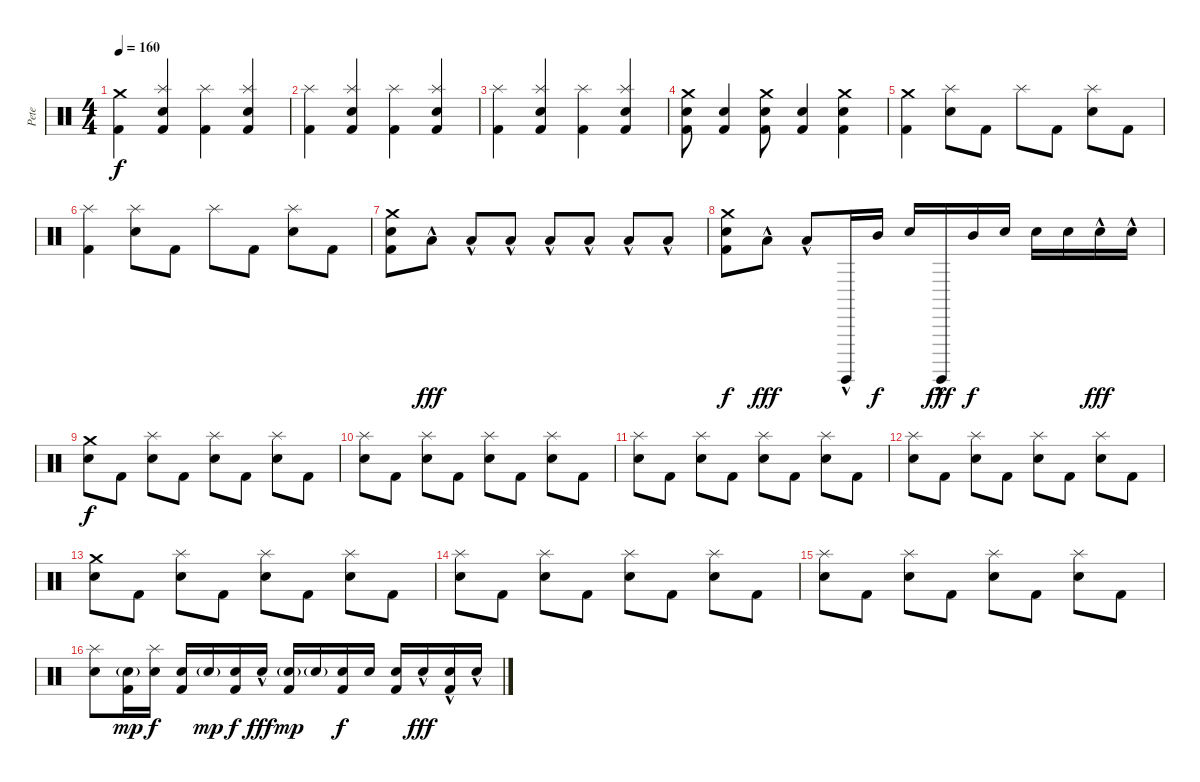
\track ("Pete" "Pete") {instrument percussion}
\staff {score}
\articulation defaults
\ts (4 4)
\tempo 160
\clef neutral
\ks c
("Crash medium (hit)" "Kick (hit) 2").4{dy f} ("Splash (hit)" "Electric Snare (hit)" "Kick (hit) 2").4 ("Splash (hit)" "Kick (hit) 2").4 ("Splash (hit)" "Electric Snare (hit)" "Kick (hit) 2").4 |
("Splash (hit)" "Kick (hit) 2").4 ("Splash (hit)" "Electric Snare (hit)" "Kick (hit) 2").4 ("Splash (hit)" "Kick (hit) 2").4 ("Splash (hit)" "Electric Snare (hit)" "Kick (hit) 2").4 |
("Splash (hit)" "Kick (hit) 2").4 ("Splash (hit)" "Electric Snare (hit)" "Kick (hit) 2").4 ("Splash (hit)" "Kick (hit) 2").4 ("Splash (hit)" "Electric Snare (hit)" "Kick (hit) 2").4 |
("Crash medium (hit)" "Electric Snare (hit)" "Kick (hit) 2").8 ("Electric Snare (hit)" "Kick (hit) 2").4 ("Crash medium (hit)" "Electric Snare (hit)" "Kick (hit) 2").8 ("Electric Snare (hit)" "Kick (hit) 2").4 ("Crash medium (hit)" "Electric Snare (hit)" "Kick (hit) 2").4 |
("Crash medium (hit)" "Kick (hit) 2").4 ("Splash (hit)" "Electric Snare (hit)").8 "Kick (hit) 2".8 "Splash (hit)".8 "Kick (hit) 2".8 ("Splash (hit)" "Electric Snare (hit)").8 "Kick (hit) 2".8 |
("Splash (hit)" "Kick (hit) 2").4 ("Splash (hit)" "Electric Snare (hit)").8 "Kick (hit) 2".8 "Splash (hit)".8 "Kick (hit) 2".8 ("Splash (hit)" "Electric Snare (hit)").8 "Kick (hit) 2".8 |
("Crash medium (hit)" "Electric Snare (hit)" "Kick (hit) 2").8 "Low Tom (hit)"{hac}.8{dy fff} "Low Tom (hit)"{hac}.8 "Low Tom (hit)"{hac}.8 "Low Tom (hit)"{hac}.8 "Low Tom (hit)"{hac}.8 "Low Tom (hit)"{hac}.8 "Low Tom (hit)"{hac}.8 |
("Crash medium (hit)" "Electric Snare (hit)" "Kick (hit) 2").8{dy f} "Low Tom (hit)"{hac}.8{dy fff} "Low Tom (hit)"{hac}.8 "Surdo (hit)"{hac}.16 "Mid Tom (hit)".16{dy f} "Electric Snare (hit)".16 "Surdo (hit)"{hac}.16{dy fff} "Mid Tom (hit)".16{dy f} "Electric Snare (hit)".16 "Electric Snare (hit)".16 "Electric Snare (hit)".16 "Electric Snare (hit)"{hac}.16{dy fff} "Electric Snare (hit)"{hac}.16 |
("Crash medium (hit)" "Electric Snare (hit)").8{dy f} "Kick (hit) 2".8 ("Splash (hit)" "Electric Snare (hit)").8 "Kick (hit) 2".8 ("Splash (hit)" "Electric Snare (hit)").8 "Kick (hit) 2".8 ("Splash (hit)" "Electric Snare (hit)").8 "Kick (hit) 2".8 |
("Splash (hit)" "Electric Snare (hit)").8 "Kick (hit) 2".8 ("Splash (hit)" "Electric Snare (hit)").8 "Kick (hit) 2".8 ("Splash (hit)" "Electric Snare (hit)").8 "Kick (hit) 2".8 ("Splash (hit)" "Electric Snare (hit)").8 "Kick (hit) 2".8 |
("Splash (hit)" "Electric Snare (hit)").8 "Kick (hit) 2".8 ("Splash (hit)" "Electric Snare (hit)").8 "Kick (hit) 2".8 ("Splash (hit)" "Electric Snare (hit)").8 "Kick (hit) 2".8 ("Splash (hit)" "Electric Snare (hit)").8 "Kick (hit) 2".8 |
("Splash (hit)" "Electric Snare (hit)").8 "Kick (hit) 2".8 ("Splash (hit)" "Electric Snare (hit)").8 "Kick (hit) 2".8 ("Splash (hit)" "Electric Snare (hit)").8 "Kick (hit) 2".8 ("Splash (hit)" "Electric Snare (hit)").8 "Kick (hit) 2".8 |
("Crash medium (hit)" "Electric Snare (hit)").8 "Kick (hit) 2".8 ("Splash (hit)" "Electric Snare (hit)").8 "Kick (hit) 2".8 ("Splash (hit)" "Electric Snare (hit)").8 "Kick (hit) 2".8 ("Splash (hit)" "Electric Snare (hit)").8 "Kick (hit) 2".8 |
("Splash (hit)" "Electric Snare (hit)").8 "Kick (hit) 2".8 ("Splash (hit)" "Electric Snare (hit)").8 "Kick (hit) 2".8 ("Splash (hit)" "Electric Snare (hit)").8 "Kick (hit) 2".8 ("Splash (hit)" "Electric Snare (hit)").8 "Kick (hit) 2".8 |
("Splash (hit)" "Electric Snare (hit)").8 "Kick (hit) 2".8 ("Splash (hit)" "Electric Snare (hit)").8 "Kick (hit) 2".8 ("Splash (hit)" "Electric Snare (hit)").8 "Kick (hit) 2".8 ("Splash (hit)" "Electric Snare (hit)").8 "Kick (hit) 2".8 |
("Splash (hit)" "Electric Snare (hit)").8 ("Electric Snare (hit)"{g} "Kick (hit) 2").16{dy mp} ("Splash (hit)" "Electric Snare (hit)").16{dy f} ("Electric Snare (hit)" "Kick (hit) 2").16 "Electric Snare (hit)"{g}.16{dy mp} ("Electric Snare (hit)" "Kick (hit) 2").16{dy f} "Electric Snare (hit)"{hac}.16{dy fff} ("Electric Snare (hit)"{g} "Kick (hit) 2").16{dy mp} "Electric Snare (hit)"{g}.16 ("Electric Snare (hit)" "Kick (hit) 2").16{dy f} "Electric Snare (hit)".16 ("Electric Snare (hit)" "Kick (hit) 2").16 "Electric Snare (hit)"{hac}.16{dy fff} ("Electric Snare (hit)"{hac} "Kick (hit) 2").16 "Electric Snare (hit)"{hac}.16
